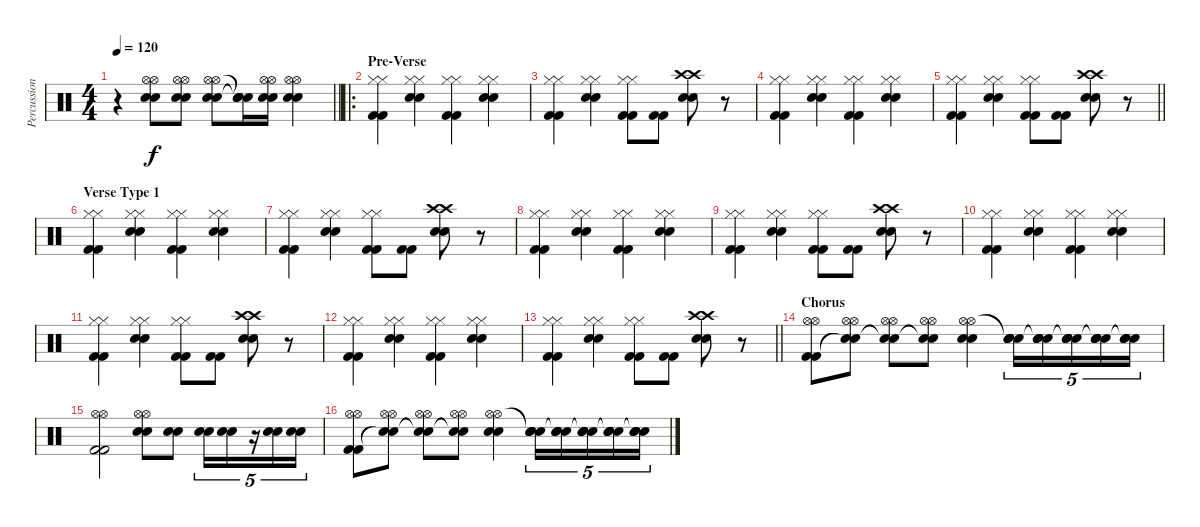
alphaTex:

\track ("Percussion" "Percussion") {instrument percussion}
\staff {score}
\articulation defaults
\ts (4 4)
\tempo 120
\clef neutral
\barLineRight lightlight
\ks c
r.4{dy f} ("Hi-Hat (open)" "Hi-Hat (open)" "Electric Snare (hit)" "Electric Snare (hit)").8 ("Hi-Hat (open)" "Hi-Hat (open)" "Electric Snare (hit)" "Electric Snare (hit)").8 ("Hi-Hat (open)" "Hi-Hat (open)" "Electric Snare (hit)" "Electric Snare (hit)").8 ("Snare (hit)"{t} "Snare (hit)"{t} "Snare (hit)"{t} "Snare (hit)"{t}).16 ("Hi-Hat (open)" "Hi-Hat (open)" "Electric Snare (hit)" "Electric Snare (hit)").16 ("Hi-Hat (open)" "Hi-Hat (open)" "Electric Snare (hit)" "Electric Snare (hit)").4 |
\ro
\section ("" "Pre-Verse")
("Hi-Hat (closed)" "Hi-Hat (closed)" "Kick (hit) 2" "Kick (hit) 2").4 ("Hi-Hat (closed)" "Hi-Hat (closed)" "Electric Snare (hit)" "Electric Snare (hit)").4 ("Hi-Hat (closed)" "Hi-Hat (closed)" "Kick (hit) 2" "Kick (hit) 2").4 ("Hi-Hat (closed)" "Hi-Hat (closed)" "Electric Snare (hit)" "Electric Snare (hit)").4 |
("Hi-Hat (closed)" "Hi-Hat (closed)" "Kick (hit) 2" "Kick (hit) 2").4 ("Hi-Hat (closed)" "Hi-Hat (closed)" "Electric Snare (hit)" "Electric Snare (hit)").4 ("Hi-Hat (closed)" "Hi-Hat (closed)" "Kick (hit) 2" "Kick (hit) 2").8 ("Kick (hit) 2" "Kick (hit) 2").8 ("Crash high (hit)" "Crash high (hit)" "Electric Snare (hit)" "Electric Snare (hit)").8 r.8 |
("Hi-Hat (closed)" "Hi-Hat (closed)" "Kick (hit) 2" "Kick (hit) 2").4 ("Hi-Hat (closed)" "Hi-Hat (closed)" "Electric Snare (hit)" "Electric Snare (hit)").4 ("Hi-Hat (closed)" "Hi-Hat (closed)" "Kick (hit) 2" "Kick (hit) 2").4 ("Hi-Hat (closed)" "Hi-Hat (closed)" "Electric Snare (hit)" "Electric Snare (hit)").4 |
\barLineRight lightlight
("Hi-Hat (closed)" "Hi-Hat (closed)" "Kick (hit) 2" "Kick (hit) 2").4 ("Hi-Hat (closed)" "Hi-Hat (closed)" "Electric Snare (hit)" "Electric Snare (hit)").4 ("Hi-Hat (closed)" "Hi-Hat (closed)" "Kick (hit) 2" "Kick (hit) 2").8 ("Kick (hit) 2" "Kick (hit) 2").8 ("Crash high (hit)" "Crash high (hit)" "Electric Snare (hit)" "Electric Snare (hit)").8 r.8 |
\section ("" "Verse Type 1")
("Hi-Hat (closed)" "Hi-Hat (closed)" "Kick (hit) 2" "Kick (hit) 2").4 ("Hi-Hat (closed)" "Hi-Hat (closed)" "Electric Snare (hit)" "Electric Snare (hit)").4 ("Hi-Hat (closed)" "Hi-Hat (closed)" "Kick (hit) 2" "Kick (hit) 2").4 ("Hi-Hat (closed)" "Hi-Hat (closed)" "Electric Snare (hit)" "Electric Snare (hit)").4 |
("Hi-Hat (closed)" "Hi-Hat (closed)" "Kick (hit) 2" "Kick (hit) 2").4 ("Hi-Hat (closed)" "Hi-Hat (closed)" "Electric Snare (hit)" "Electric Snare (hit)").4 ("Hi-Hat (closed)" "Hi-Hat (closed)" "Kick (hit) 2" "Kick (hit) 2").8 ("Kick (hit) 2" "Kick (hit) 2").8 ("Crash high (hit)" "Crash high (hit)" "Electric Snare (hit)" "Electric Snare (hit)").8 r.8 |
("Hi-Hat (closed)" "Hi-Hat (closed)" "Kick (hit) 2" "Kick (hit) 2").4 ("Hi-Hat (closed)" "Hi-Hat (closed)" "Electric Snare (hit)" "Electric Snare (hit)").4 ("Hi-Hat (closed)" "Hi-Hat (closed)" "Kick (hit) 2" "Kick (hit) 2").4 ("Hi-Hat (closed)" "Hi-Hat (closed)" "Electric Snare (hit)" "Electric Snare (hit)").4 |
("Hi-Hat (closed)" "Hi-Hat (closed)" "Kick (hit) 2" "Kick (hit) 2").4 ("Hi-Hat (closed)" "Hi-Hat (closed)" "Electric Snare (hit)" "Electric Snare (hit)").4 ("Hi-Hat (closed)" "Hi-Hat (closed)" "Kick (hit) 2" "Kick (hit) 2").8 ("Kick (hit) 2" "Kick (hit) 2").8 ("Crash high (hit)" "Crash high (hit)" "Electric Snare (hit)" "Electric Snare (hit)").8 r.8 |
("Hi-Hat (closed)" "Hi-Hat (closed)" "Kick (hit) 2" "Kick (hit) 2").4 ("Hi-Hat (closed)" "Hi-Hat (closed)" "Electric Snare (hit)" "Electric Snare (hit)").4 ("Hi-Hat (closed)" "Hi-Hat (closed)" "Kick (hit) 2" "Kick (hit) 2").4 ("Hi-Hat (closed)" "Hi-Hat (closed)" "Electric Snare (hit)" "Electric Snare (hit)").4 |
("Hi-Hat (closed)" "Hi-Hat (closed)" "Kick (hit) 2" "Kick (hit) 2").4 ("Hi-Hat (closed)" "Hi-Hat (closed)" "Electric Snare (hit)" "Electric Snare (hit)").4 ("Hi-Hat (closed)" "Hi-Hat (closed)" "Kick (hit) 2" "Kick (hit) 2").8 ("Kick (hit) 2" "Kick (hit) 2").8 ("Crash high (hit)" "Crash high (hit)" "Electric Snare (hit)" "Electric Snare (hit)").8 r.8 |
("Hi-Hat (closed)" "Hi-Hat (closed)" "Kick (hit) 2" "Kick (hit) 2").4 ("Hi-Hat (closed)" "Hi-Hat (closed)" "Electric Snare (hit)" "Electric Snare (hit)").4 ("Hi-Hat (closed)" "Hi-Hat (closed)" "Kick (hit) 2" "Kick (hit) 2").4 ("Hi-Hat (closed)" "Hi-Hat (closed)" "Electric Snare (hit)" "Electric Snare (hit)").4 |
\barLineRight lightlight
("Hi-Hat (closed)" "Hi-Hat (closed)" "Kick (hit) 2" "Kick (hit) 2").4 ("Hi-Hat (closed)" "Hi-Hat (closed)" "Electric Snare (hit)" "Electric Snare (hit)").4 ("Hi-Hat (closed)" "Hi-Hat (closed)" "Kick (hit) 2" "Kick (hit) 2").8 ("Kick (hit) 2" "Kick (hit) 2").8 ("Crash high (hit)" "Crash high (hit)" "Electric Snare (hit)" "Electric Snare (hit)").8 r.8 |
\section ("" "Chorus")
("Hi-Hat (open)" "Hi-Hat (open)" "Kick (hit) 2" "Kick (hit) 2").8 ("Hi-Hat (open)" "Hi-Hat (open)" "Snare (hit)"{t} "Snare (hit)"{t}).8 ("Hi-Hat (open)" "Hi-Hat (open)" "Snare (hit)"{t} "Snare (hit)"{t}).8 ("Hi-Hat (open)" "Hi-Hat (open)" "Snare (hit)"{t} "Snare (hit)"{t}).8 ("Hi-Hat (open)" "Hi-Hat (open)" "Electric Snare (hit)" "Electric Snare (hit)").4 ("Snare (hit)"{t} "Snare (hit)"{t} "Electric Snare (hit)" "Electric Snare (hit)").16{tu (5 4)} ("Snare (hit)"{t} "Snare (hit)"{t} "Electric Snare (hit)" "Electric Snare (hit)").16{tu (5 4)} ("Snare (hit)"{t} "Snare (hit)"{t} "Electric Snare (hit)" "Electric Snare (hit)").16{tu (5 4)} ("Snare (hit)"{t} "Snare (hit)"{t} "Electric Snare (hit)" "Electric Snare (hit)").16{tu (5 4)} ("Snare (hit)"{t} "Snare (hit)"{t} "Electric Snare (hit)" "Electric Snare (hit)").16{tu (5 4)} |
("Hi-Hat (open)" "Hi-Hat (open)" "Kick (hit) 2" "Kick (hit) 2").2 ("Hi-Hat (open)" "Hi-Hat (open)" "Electric Snare (hit)" "Electric Snare (hit)").8 ("Electric Snare (hit)" "Electric Snare (hit)").8 ("Electric Snare (hit)" "Electric Snare (hit)").16{tu (5 4)} ("Electric Snare (hit)" "Electric Snare (hit)").16{tu (5 4)} r.16{tu (5 4)} ("Electric Snare (hit)" "Electric Snare (hit)").16{tu (5 4)} ("Electric Snare (hit)" "Electric Snare (hit)").16{tu (5 4)} |
("Hi-Hat (open)" "Hi-Hat (open)" "Kick (hit) 2" "Kick (hit) 2").8 ("Hi-Hat (open)" "Hi-Hat (open)" "Snare (hit)"{t} "Snare (hit)"{t}).8 ("Hi-Hat (open)" "Hi-Hat (open)" "Snare (hit)"{t} "Snare (hit)"{t}).8 ("Hi-Hat (open)" "Hi-Hat (open)" "Snare (hit)"{t} "Snare (hit)"{t}).8 ("Hi-Hat (open)" "Hi-Hat (open)" "Electric Snare (hit)" "Electric Snare (hit)").4 ("Snare (hit)"{t} "Snare (hit)"{t} "Electric Snare (hit)" "Electric Snare (hit)").16{tu (5 4)} ("Snare (hit)"{t} "Snare (hit)"{t} "Electric Snare (hit)" "Electric Snare (hit)").16{tu (5 4)} ("Snare (hit)"{t} "Snare (hit)"{t} "Electric Snare (hit)" "Electric Snare (hit)").16{tu (5 4)} ("Snare (hit)"{t} "Snare (hit)"{t} "Electric Snare (hit)" "Electric Snare (hit)").16{tu (5 4)} ("Snare (hit)"{t} "Snare (hit)"{t} "Electric Snare (hit)" "Electric Snare (hit)").16{tu (5 4)}
